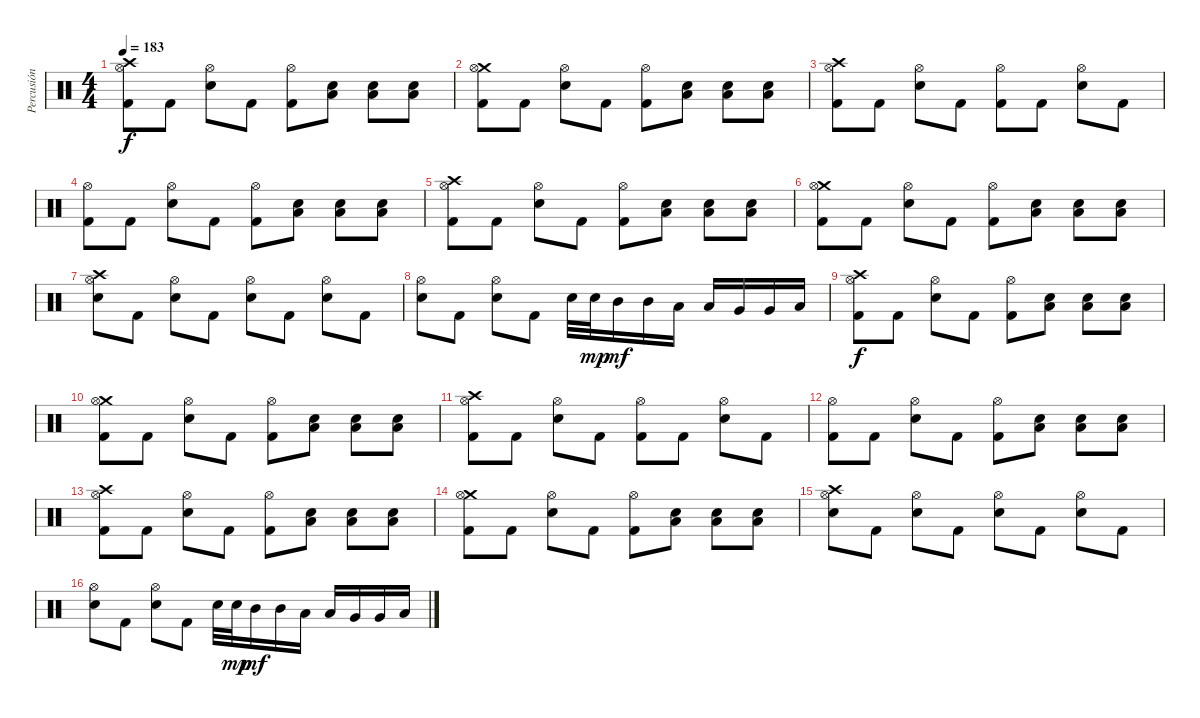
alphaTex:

\track ("Percusión" "Percusión") {instrument percussion}
\staff {score}
\articulation defaults
\ts (4 4)
\tempo 183
\clef neutral
\ks c
("Crash high (hit)" "Hi-Hat (open)" "Kick (hit) 2").8{dy f} "Kick (hit) 2".8 ("Hi-Hat (open)" "Electric Snare (hit)").8 "Kick (hit) 2".8 ("Hi-Hat (open)" "Kick (hit) 2").8 ("Low Floor Tom (hit)" "Electric Snare (hit)").8 ("Low Floor Tom (hit)" "Electric Snare (hit)").8 ("Low Floor Tom (hit)" "Electric Snare (hit)").8 |
("Crash medium (hit)" "Hi-Hat (open)" "Kick (hit) 2").8 "Kick (hit) 2".8 ("Hi-Hat (open)" "Electric Snare (hit)").8 "Kick (hit) 2".8 ("Hi-Hat (open)" "Kick (hit) 2").8 ("Low Floor Tom (hit)" "Electric Snare (hit)").8 ("Low Floor Tom (hit)" "Electric Snare (hit)").8 ("Low Floor Tom (hit)" "Electric Snare (hit)").8 |
("Crash high (hit)" "Hi-Hat (open)" "Kick (hit) 2").8 "Kick (hit) 2".8 ("Hi-Hat (open)" "Electric Snare (hit)").8 "Kick (hit) 2".8 ("Hi-Hat (open)" "Kick (hit) 2").8 "Kick (hit) 2".8 ("Hi-Hat (open)" "Electric Snare (hit)").8 "Kick (hit) 2".8 |
("Hi-Hat (open)" "Kick (hit) 2").8 "Kick (hit) 2".8 ("Hi-Hat (open)" "Electric Snare (hit)").8 "Kick (hit) 2".8 ("Hi-Hat (open)" "Kick (hit) 2").8 ("Low Floor Tom (hit)" "Electric Snare (hit)").8 ("Low Floor Tom (hit)" "Electric Snare (hit)").8 ("Low Floor Tom (hit)" "Electric Snare (hit)").8 |
("Crash high (hit)" "Hi-Hat (open)" "Kick (hit) 2").8 "Kick (hit) 2".8 ("Hi-Hat (open)" "Electric Snare (hit)").8 "Kick (hit) 2".8 ("Hi-Hat (open)" "Kick (hit) 2").8 ("Low Floor Tom (hit)" "Electric Snare (hit)").8 ("Low Floor Tom (hit)" "Electric Snare (hit)").8 ("Low Floor Tom (hit)" "Electric Snare (hit)").8 |
("Crash medium (hit)" "Hi-Hat (open)" "Kick (hit) 2").8 "Kick (hit) 2".8 ("Hi-Hat (open)" "Electric Snare (hit)").8 "Kick (hit) 2".8 ("Hi-Hat (open)" "Kick (hit) 2").8 ("Low Floor Tom (hit)" "Electric Snare (hit)").8 ("Low Floor Tom (hit)" "Electric Snare (hit)").8 ("Low Floor Tom (hit)" "Electric Snare (hit)").8 |
("Crash high (hit)" "Hi-Hat (open)" "Electric Snare (hit)").8 "Kick (hit) 2".8 ("Hi-Hat (open)" "Electric Snare (hit)").8 "Kick (hit) 2".8 ("Hi-Hat (open)" "Electric Snare (hit)").8 "Kick (hit) 2".8 ("Hi-Hat (open)" "Electric Snare (hit)").8 "Kick (hit) 2".8 |
("Hi-Hat (open)" "Electric Snare (hit)").8 "Kick (hit) 2".8 ("Hi-Hat (open)" "Electric Snare (hit)").8 "Kick (hit) 2".8 "Electric Snare (hit)".32 "Electric Snare (hit)".32{dy mp} "Mid Tom (hit)".16{dy mf} "Mid Tom (hit)".16 "Low Tom (hit)".16 "Low Tom (hit)".16 "Very Low Tom (hit)".16 "Very Low Tom (hit)".16 "Low Floor Tom (hit)".16 |
("Crash high (hit)" "Hi-Hat (open)" "Kick (hit) 2").8{dy f} "Kick (hit) 2".8 ("Hi-Hat (open)" "Electric Snare (hit)").8 "Kick (hit) 2".8 ("Hi-Hat (open)" "Kick (hit) 2").8 ("Low Floor Tom (hit)" "Electric Snare (hit)").8 ("Low Floor Tom (hit)" "Electric Snare (hit)").8 ("Low Floor Tom (hit)" "Electric Snare (hit)").8 |
("Crash medium (hit)" "Hi-Hat (open)" "Kick (hit) 2").8 "Kick (hit) 2".8 ("Hi-Hat (open)" "Electric Snare (hit)").8 "Kick (hit) 2".8 ("Hi-Hat (open)" "Kick (hit) 2").8 ("Low Floor Tom (hit)" "Electric Snare (hit)").8 ("Low Floor Tom (hit)" "Electric Snare (hit)").8 ("Low Floor Tom (hit)" "Electric Snare (hit)").8 |
("Crash high (hit)" "Hi-Hat (open)" "Kick (hit) 2").8 "Kick (hit) 2".8 ("Hi-Hat (open)" "Electric Snare (hit)").8 "Kick (hit) 2".8 ("Hi-Hat (open)" "Kick (hit) 2").8 "Kick (hit) 2".8 ("Hi-Hat (open)" "Electric Snare (hit)").8 "Kick (hit) 2".8 |
("Hi-Hat (open)" "Kick (hit) 2").8 "Kick (hit) 2".8 ("Hi-Hat (open)" "Electric Snare (hit)").8 "Kick (hit) 2".8 ("Hi-Hat (open)" "Kick (hit) 2").8 ("Low Floor Tom (hit)" "Electric Snare (hit)").8 ("Low Floor Tom (hit)" "Electric Snare (hit)").8 ("Low Floor Tom (hit)" "Electric Snare (hit)").8 |
("Crash high (hit)" "Hi-Hat (open)" "Kick (hit) 2").8 "Kick (hit) 2".8 ("Hi-Hat (open)" "Electric Snare (hit)").8 "Kick (hit) 2".8 ("Hi-Hat (open)" "Kick (hit) 2").8 ("Low Floor Tom (hit)" "Electric Snare (hit)").8 ("Low Floor Tom (hit)" "Electric Snare (hit)").8 ("Low Floor Tom (hit)" "Electric Snare (hit)").8 |
("Crash medium (hit)" "Hi-Hat (open)" "Kick (hit) 2").8 "Kick (hit) 2".8 ("Hi-Hat (open)" "Electric Snare (hit)").8 "Kick (hit) 2".8 ("Hi-Hat (open)" "Kick (hit) 2").8 ("Low Floor Tom (hit)" "Electric Snare (hit)").8 ("Low Floor Tom (hit)" "Electric Snare (hit)").8 ("Low Floor Tom (hit)" "Electric Snare (hit)").8 |
("Crash high (hit)" "Hi-Hat (open)" "Electric Snare (hit)").8 "Kick (hit) 2".8 ("Hi-Hat (open)" "Electric Snare (hit)").8 "Kick (hit) 2".8 ("Hi-Hat (open)" "Electric Snare (hit)").8 "Kick (hit) 2".8 ("Hi-Hat (open)" "Electric Snare (hit)").8 "Kick (hit) 2".8 |
("Hi-Hat (open)" "Electric Snare (hit)").8 "Kick (hit) 2".8 ("Hi-Hat (open)" "Electric Snare (hit)").8 "Kick (hit) 2".8 "Electric Snare (hit)".32 "Electric Snare (hit)".32{dy mp} "Mid Tom (hit)".16{dy mf} "Mid Tom (hit)".16 "Low Tom (hit)".16 "Low Tom (hit)".16 "Very Low Tom (hit)".16 "Very Low Tom (hit)".16 "Low Floor Tom (hit)".16
